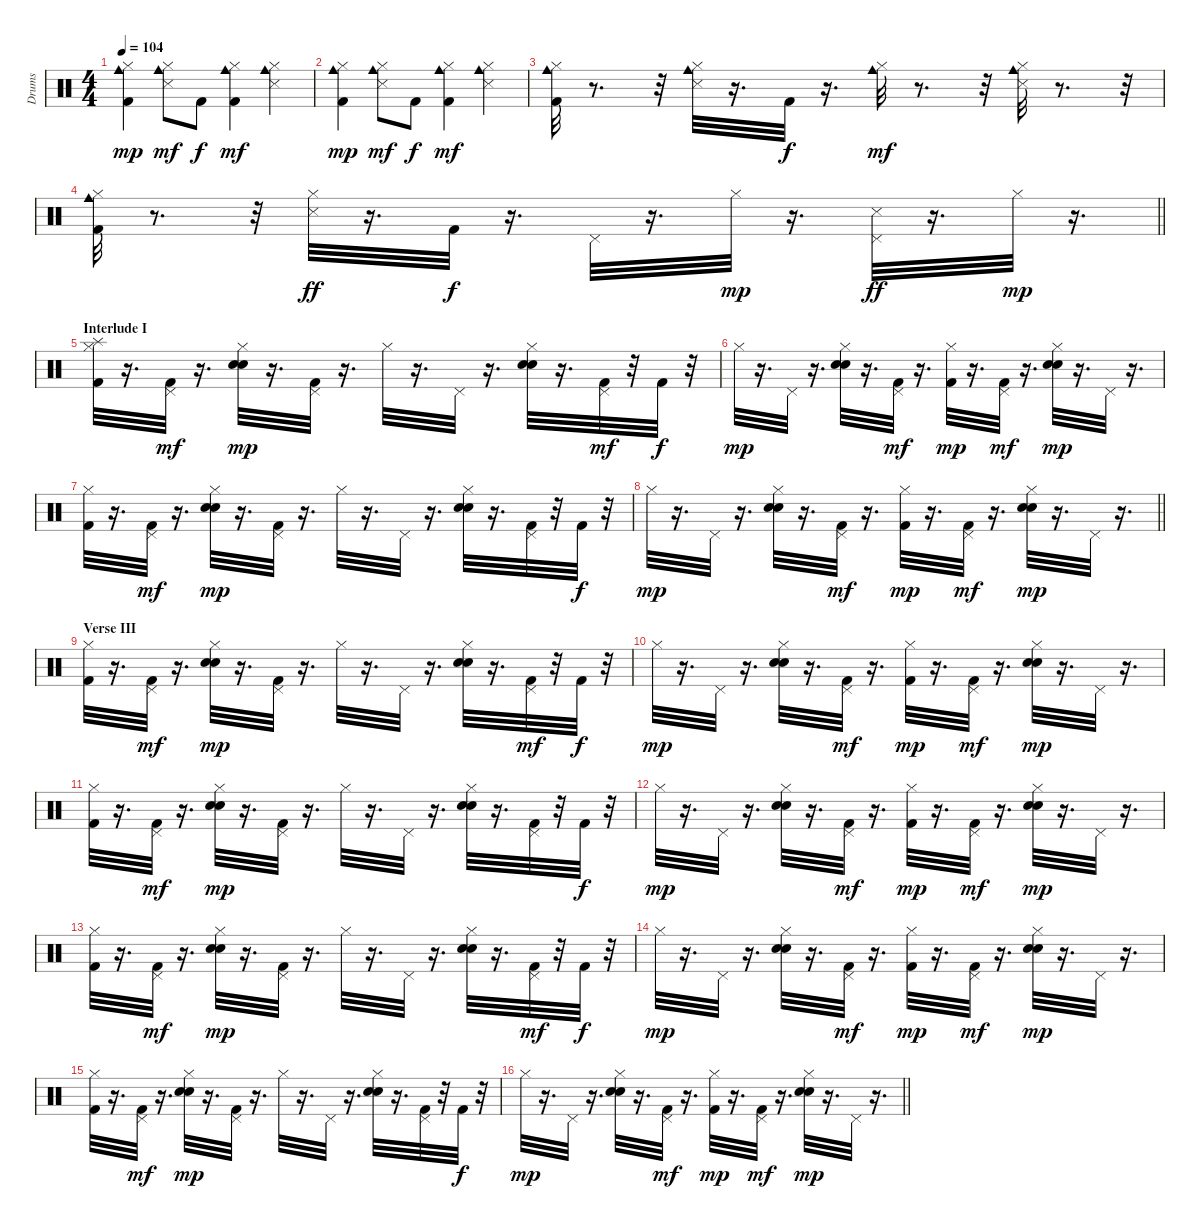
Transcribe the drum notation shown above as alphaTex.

\track ("Drums" "Drums") {instrument percussion}
\staff {score}
\articulation defaults
\ts (4 4)
\tempo 104
\clef neutral
\ks c
("Hi-Hat (closed)" "Kick (hit) 2" "Cowbell medium (hit)").4{dy mp} ("Hi-Hat (closed)" "Snare (side stick) 3" "Cowbell medium (hit)").8{dy mf} "Kick (hit) 2".8{dy f} ("Hi-Hat (closed)" "Kick (hit) 2" "Cowbell medium (hit)").4{dy mf} ("Hi-Hat (closed)" "Snare (side stick) 3" "Cowbell medium (hit)").4 |
("Hi-Hat (closed)" "Kick (hit) 2" "Cowbell medium (hit)").4{dy mp} ("Hi-Hat (closed)" "Snare (side stick) 3" "Cowbell medium (hit)").8{dy mf} "Kick (hit) 2".8{dy f} ("Hi-Hat (closed)" "Kick (hit) 2" "Cowbell medium (hit)").4{dy mf} ("Hi-Hat (closed)" "Snare (side stick) 3" "Cowbell medium (hit)").4 |
("Hi-Hat (closed)" "Kick (hit) 2" "Cowbell medium (hit)").32 r.8{d} r.32 ("Hi-Hat (closed)" "Snare (side stick) 3" "Cowbell medium (hit)").32 r.16{d} "Kick (hit) 2".32{dy f} r.16{d} ("Hi-Hat (closed)" "Cowbell medium (hit)").32{dy mf} r.8{d} r.32 ("Hi-Hat (closed)" "Snare (side stick) 3" "Cowbell medium (hit)").32 r.8{d} r.32 |
\barLineRight lightlight
("Hi-Hat (closed)" "Kick (hit) 2" "Cowbell medium (hit)").32 r.8{d} r.32 ("Hi-Hat (closed)" "Snare (side stick) 3").32{dy ff} r.16{d} "Kick (hit) 2".32{dy f} r.16{d} "Pedal Hi-Hat (hit)".32 r.16{d} "Hi-Hat (closed)".32{dy mp} r.16{d} ("Pedal Hi-Hat (hit)" "Snare (side stick) 3").32{dy ff} r.16{d} "Hi-Hat (closed)".32{dy mp} r.16{d} |
\section ("" "Interlude I")
("Splash (hit)" "Hi-Hat (closed)" "Kick (hit) 2").32 r.16{d} ("Pedal Hi-Hat (hit)" "Kick (hit) 2").32{dy mf} r.16{d} ("Hi-Hat (closed)" "Electric Snare (hit)" "Hand Clap (hit)").32{dy mp} r.16{d} ("Pedal Hi-Hat (hit)" "Kick (hit) 2").32 r.16{d} "Hi-Hat (closed)".32 r.16{d} "Pedal Hi-Hat (hit)".32 r.16{d} ("Hi-Hat (closed)" "Electric Snare (hit)" "Hand Clap (hit)").32 r.16{d} ("Pedal Hi-Hat (hit)" "Kick (hit) 2").32{dy mf} r.32 "Kick (hit) 2".32{dy f} r.32 |
"Hi-Hat (closed)".32{dy mp} r.16{d} "Pedal Hi-Hat (hit)".32 r.16{d} ("Hi-Hat (closed)" "Electric Snare (hit)" "Hand Clap (hit)").32 r.16{d} ("Pedal Hi-Hat (hit)" "Kick (hit) 2").32{dy mf} r.16{d} ("Hi-Hat (closed)" "Kick (hit) 2").32{dy mp} r.16{d} ("Pedal Hi-Hat (hit)" "Kick (hit) 2").32{dy mf} r.16{d} ("Hi-Hat (closed)" "Electric Snare (hit)" "Hand Clap (hit)").32{dy mp} r.16{d} "Pedal Hi-Hat (hit)".32 r.16{d} |
("Hi-Hat (closed)" "Kick (hit) 2").32 r.16{d} ("Pedal Hi-Hat (hit)" "Kick (hit) 2").32{dy mf} r.16{d} ("Hi-Hat (closed)" "Electric Snare (hit)" "Hand Clap (hit)").32{dy mp} r.16{d} ("Pedal Hi-Hat (hit)" "Kick (hit) 2").32 r.16{d} "Hi-Hat (closed)".32 r.16{d} "Pedal Hi-Hat (hit)".32 r.16{d} ("Hi-Hat (closed)" "Electric Snare (hit)" "Hand Clap (hit)").32 r.16{d} ("Pedal Hi-Hat (hit)" "Kick (hit) 2").32 r.32 "Kick (hit) 2".32{dy f} r.32 |
\barLineRight lightlight "Hi-Hat (closed)".32{dy mp}
r.16{d} "Pedal Hi-Hat (hit)".32 r.16{d} ("Hi-Hat (closed)" "Electric Snare (hit)" "Hand Clap (hit)").32 r.16{d} ("Pedal Hi-Hat (hit)" "Kick (hit) 2").32{dy mf} r.16{d} ("Hi-Hat (closed)" "Kick (hit) 2").32{dy mp} r.16{d} ("Pedal Hi-Hat (hit)" "Kick (hit) 2").32{dy mf} r.16{d} ("Hi-Hat (closed)" "Electric Snare (hit)" "Hand Clap (hit)").32{dy mp} r.16{d} "Pedal Hi-Hat (hit)".32 r.16{d} |
\section ("" "Verse III")
("Hi-Hat (closed)" "Kick (hit) 2").32 r.16{d} ("Pedal Hi-Hat (hit)" "Kick (hit) 2").32{dy mf} r.16{d} ("Hi-Hat (closed)" "Electric Snare (hit)" "Hand Clap (hit)").32{dy mp} r.16{d} ("Pedal Hi-Hat (hit)" "Kick (hit) 2").32 r.16{d} "Hi-Hat (closed)".32 r.16{d} "Pedal Hi-Hat (hit)".32 r.16{d} ("Hi-Hat (closed)" "Electric Snare (hit)" "Hand Clap (hit)").32 r.16{d} ("Pedal Hi-Hat (hit)" "Kick (hit) 2").32{dy mf} r.32 "Kick (hit) 2".32{dy f} r.32 |
"Hi-Hat (closed)".32{dy mp} r.16{d} "Pedal Hi-Hat (hit)".32 r.16{d} ("Hi-Hat (closed)" "Electric Snare (hit)" "Hand Clap (hit)").32 r.16{d} ("Pedal Hi-Hat (hit)" "Kick (hit) 2").32{dy mf} r.16{d} ("Hi-Hat (closed)" "Kick (hit) 2").32{dy mp} r.16{d} ("Pedal Hi-Hat (hit)" "Kick (hit) 2").32{dy mf} r.16{d} ("Hi-Hat (closed)" "Electric Snare (hit)" "Hand Clap (hit)").32{dy mp} r.16{d} "Pedal Hi-Hat (hit)".32 r.16{d} |
("Hi-Hat (closed)" "Kick (hit) 2").32 r.16{d} ("Pedal Hi-Hat (hit)" "Kick (hit) 2").32{dy mf} r.16{d} ("Hi-Hat (closed)" "Electric Snare (hit)" "Hand Clap (hit)").32{dy mp} r.16{d} ("Pedal Hi-Hat (hit)" "Kick (hit) 2").32 r.16{d} "Hi-Hat (closed)".32 r.16{d} "Pedal Hi-Hat (hit)".32 r.16{d} ("Hi-Hat (closed)" "Electric Snare (hit)" "Hand Clap (hit)").32 r.16{d} ("Pedal Hi-Hat (hit)" "Kick (hit) 2").32 r.32 "Kick (hit) 2".32{dy f} r.32 |
"Hi-Hat (closed)".32{dy mp} r.16{d} "Pedal Hi-Hat (hit)".32 r.16{d} ("Hi-Hat (closed)" "Electric Snare (hit)" "Hand Clap (hit)").32 r.16{d} ("Pedal Hi-Hat (hit)" "Kick (hit) 2").32{dy mf} r.16{d} ("Hi-Hat (closed)" "Kick (hit) 2").32{dy mp} r.16{d} ("Pedal Hi-Hat (hit)" "Kick (hit) 2").32{dy mf} r.16{d} ("Hi-Hat (closed)" "Electric Snare (hit)" "Hand Clap (hit)").32{dy mp} r.16{d} "Pedal Hi-Hat (hit)".32 r.16{d} |
("Hi-Hat (closed)" "Kick (hit) 2").32 r.16{d} ("Pedal Hi-Hat (hit)" "Kick (hit) 2").32{dy mf} r.16{d} ("Hi-Hat (closed)" "Electric Snare (hit)" "Hand Clap (hit)").32{dy mp} r.16{d} ("Pedal Hi-Hat (hit)" "Kick (hit) 2").32 r.16{d} "Hi-Hat (closed)".32 r.16{d} "Pedal Hi-Hat (hit)".32 r.16{d} ("Hi-Hat (closed)" "Electric Snare (hit)" "Hand Clap (hit)").32 r.16{d} ("Pedal Hi-Hat (hit)" "Kick (hit) 2").32{dy mf} r.32 "Kick (hit) 2".32{dy f} r.32 |
"Hi-Hat (closed)".32{dy mp} r.16{d} "Pedal Hi-Hat (hit)".32 r.16{d} ("Hi-Hat (closed)" "Electric Snare (hit)" "Hand Clap (hit)").32 r.16{d} ("Pedal Hi-Hat (hit)" "Kick (hit) 2").32{dy mf} r.16{d} ("Hi-Hat (closed)" "Kick (hit) 2").32{dy mp} r.16{d} ("Pedal Hi-Hat (hit)" "Kick (hit) 2").32{dy mf} r.16{d} ("Hi-Hat (closed)" "Electric Snare (hit)" "Hand Clap (hit)").32{dy mp} r.16{d} "Pedal Hi-Hat (hit)".32 r.16{d} |
("Hi-Hat (closed)" "Kick (hit) 2").32 r.16{d} ("Pedal Hi-Hat (hit)" "Kick (hit) 2").32{dy mf} r.16{d} ("Hi-Hat (closed)" "Electric Snare (hit)" "Hand Clap (hit)").32{dy mp} r.16{d} ("Pedal Hi-Hat (hit)" "Kick (hit) 2").32 r.16{d} "Hi-Hat (closed)".32 r.16{d} "Pedal Hi-Hat (hit)".32 r.16{d} ("Hi-Hat (closed)" "Electric Snare (hit)" "Hand Clap (hit)").32 r.16{d} ("Pedal Hi-Hat (hit)" "Kick (hit) 2").32 r.32 "Kick (hit) 2".32{dy f} r.32 |
\barLineRight lightlight "Hi-Hat (closed)".32{dy mp}
r.16{d} "Pedal Hi-Hat (hit)".32 r.16{d} ("Hi-Hat (closed)" "Electric Snare (hit)" "Hand Clap (hit)").32 r.16{d} ("Pedal Hi-Hat (hit)" "Kick (hit) 2").32{dy mf} r.16{d} ("Hi-Hat (closed)" "Kick (hit) 2").32{dy mp} r.16{d} ("Pedal Hi-Hat (hit)" "Kick (hit) 2").32{dy mf} r.16{d} ("Hi-Hat (closed)" "Electric Snare (hit)" "Hand Clap (hit)").32{dy mp} r.16{d} "Pedal Hi-Hat (hit)".32 r.16{d}
